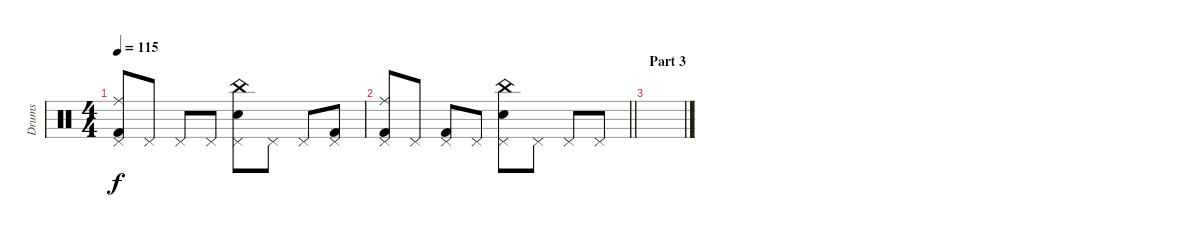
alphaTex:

\track ("Drums" "Drums") {instrument percussion}
\staff {score}
\articulation defaults
\ts (4 4)
\tempo 115
\clef neutral
\ks c
("Pedal Hi-Hat (hit)" "Ride (middle)" "Kick (hit) 2").8{dy f} "Pedal Hi-Hat (hit)".8 "Pedal Hi-Hat (hit)".8 "Pedal Hi-Hat (hit)".8 ("Pedal Hi-Hat (hit)" "Electric Snare (hit)" "China (hit)").8 "Pedal Hi-Hat (hit)".8 "Pedal Hi-Hat (hit)".8 ("Pedal Hi-Hat (hit)" "Kick (hit) 2").8 |
\barLineRight lightlight
("Pedal Hi-Hat (hit)" "Ride (middle)" "Kick (hit) 2").8 "Pedal Hi-Hat (hit)".8 ("Pedal Hi-Hat (hit)" "Kick (hit) 2").8 "Pedal Hi-Hat (hit)".8 ("Pedal Hi-Hat (hit)" "Electric Snare (hit)" "China (hit)").8 "Pedal Hi-Hat (hit)".8 "Pedal Hi-Hat (hit)".8 "Pedal Hi-Hat (hit)".8 |
\section ("" "Part 3")
